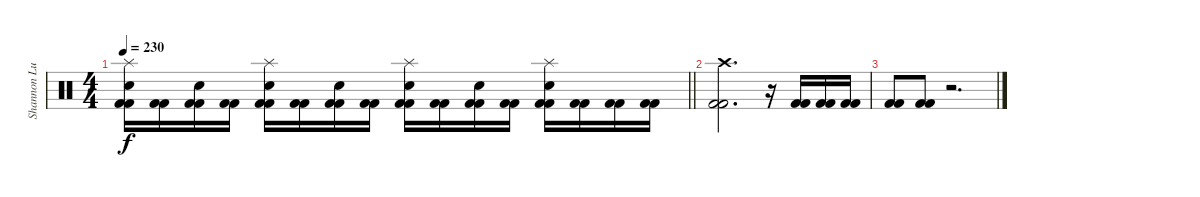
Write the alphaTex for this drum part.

\track ("Shannon Lucas" "Shannon Lu") {instrument percussion}
\staff {score}
\articulation defaults
\ts (4 4)
\tempo 230
\clef neutral
\barLineRight lightlight
\ks c
("Splash (hit)" "Electric Snare (hit)" "Kick (hit) 2" "Kick (hit) 2").16{dy f} ("Kick (hit) 2" "Kick (hit) 2").16 ("Electric Snare (hit)" "Kick (hit) 2" "Kick (hit) 2").16 ("Kick (hit) 2" "Kick (hit) 2").16 ("Splash (hit)" "Electric Snare (hit)" "Kick (hit) 2" "Kick (hit) 2").16 ("Kick (hit) 2" "Kick (hit) 2").16 ("Electric Snare (hit)" "Kick (hit) 2" "Kick (hit) 2").16 ("Kick (hit) 2" "Kick (hit) 2").16 ("Splash (hit)" "Electric Snare (hit)" "Kick (hit) 2" "Kick (hit) 2").16 ("Kick (hit) 2" "Kick (hit) 2").16 ("Electric Snare (hit)" "Kick (hit) 2" "Kick (hit) 2").16 ("Kick (hit) 2" "Kick (hit) 2").16 ("Splash (hit)" "Electric Snare (hit)" "Kick (hit) 2" "Kick (hit) 2").16 ("Kick (hit) 2" "Kick (hit) 2").16 ("Kick (hit) 2" "Kick (hit) 2").16 ("Kick (hit) 2" "Kick (hit) 2").16 |
("Crash high (hit)" "Kick (hit) 2" "Kick (hit) 2").2{d} r.16 ("Kick (hit) 2" "Kick (hit) 2").16 ("Kick (hit) 2" "Kick (hit) 2").16 ("Kick (hit) 2" "Kick (hit) 2").16 |
("Kick (hit) 2" "Kick (hit) 2").8 ("Kick (hit) 2" "Kick (hit) 2").8 r.2{d}
